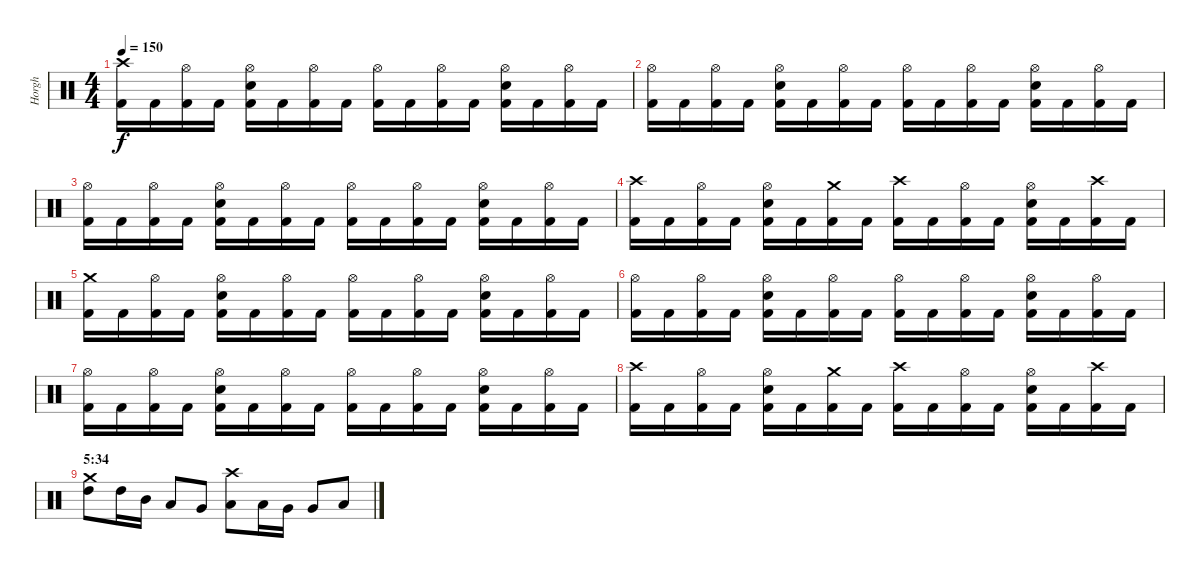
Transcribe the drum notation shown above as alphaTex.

\track ("Horgh" "Horgh") {instrument percussion}
\staff {score}
\articulation defaults
\ts (4 4)
\tempo 150
\clef neutral
\ks c
("Crash high (hit)" "Kick (hit) 2").16{dy f} "Kick (hit) 2".16 ("Hi-Hat (open)" "Kick (hit) 2").16 "Kick (hit) 2".16 ("Hi-Hat (open)" "Electric Snare (hit)" "Kick (hit) 2").16 "Kick (hit) 2".16 ("Hi-Hat (open)" "Kick (hit) 2").16 "Kick (hit) 2".16 ("Hi-Hat (open)" "Kick (hit) 2").16 "Kick (hit) 2".16 ("Hi-Hat (open)" "Kick (hit) 2").16 "Kick (hit) 2".16 ("Hi-Hat (open)" "Electric Snare (hit)" "Kick (hit) 2").16 "Kick (hit) 2".16 ("Hi-Hat (open)" "Kick (hit) 2").16 "Kick (hit) 2".16 |
("Hi-Hat (open)" "Kick (hit) 2").16 "Kick (hit) 2".16 ("Hi-Hat (open)" "Kick (hit) 2").16 "Kick (hit) 2".16 ("Hi-Hat (open)" "Electric Snare (hit)" "Kick (hit) 2").16 "Kick (hit) 2".16 ("Hi-Hat (open)" "Kick (hit) 2").16 "Kick (hit) 2".16 ("Hi-Hat (open)" "Kick (hit) 2").16 "Kick (hit) 2".16 ("Hi-Hat (open)" "Kick (hit) 2").16 "Kick (hit) 2".16 ("Hi-Hat (open)" "Electric Snare (hit)" "Kick (hit) 2").16 "Kick (hit) 2".16 ("Hi-Hat (open)" "Kick (hit) 2").16 "Kick (hit) 2".16 |
("Hi-Hat (open)" "Kick (hit) 2").16 "Kick (hit) 2".16 ("Hi-Hat (open)" "Kick (hit) 2").16 "Kick (hit) 2".16 ("Hi-Hat (open)" "Electric Snare (hit)" "Kick (hit) 2").16 "Kick (hit) 2".16 ("Hi-Hat (open)" "Kick (hit) 2").16 "Kick (hit) 2".16 ("Hi-Hat (open)" "Kick (hit) 2").16 "Kick (hit) 2".16 ("Hi-Hat (open)" "Kick (hit) 2").16 "Kick (hit) 2".16 ("Hi-Hat (open)" "Electric Snare (hit)" "Kick (hit) 2").16 "Kick (hit) 2".16 ("Hi-Hat (open)" "Kick (hit) 2").16 "Kick (hit) 2".16 |
("Crash high (hit)" "Kick (hit) 2").16 "Kick (hit) 2".16 ("Hi-Hat (open)" "Kick (hit) 2").16 "Kick (hit) 2".16 ("Hi-Hat (open)" "Electric Snare (hit)" "Kick (hit) 2").16 "Kick (hit) 2".16 ("Crash medium (hit)" "Kick (hit) 2").16 "Kick (hit) 2".16 ("Crash high (hit)" "Kick (hit) 2").16 "Kick (hit) 2".16 ("Hi-Hat (open)" "Kick (hit) 2").16 "Kick (hit) 2".16 ("Hi-Hat (open)" "Electric Snare (hit)" "Kick (hit) 2").16 "Kick (hit) 2".16 ("Crash high (hit)" "Kick (hit) 2").16 "Kick (hit) 2".16 |
("Crash medium (hit)" "Kick (hit) 2").16 "Kick (hit) 2".16 ("Hi-Hat (open)" "Kick (hit) 2").16 "Kick (hit) 2".16 ("Hi-Hat (open)" "Electric Snare (hit)" "Kick (hit) 2").16 "Kick (hit) 2".16 ("Hi-Hat (open)" "Kick (hit) 2").16 "Kick (hit) 2".16 ("Hi-Hat (open)" "Kick (hit) 2").16 "Kick (hit) 2".16 ("Hi-Hat (open)" "Kick (hit) 2").16 "Kick (hit) 2".16 ("Hi-Hat (open)" "Electric Snare (hit)" "Kick (hit) 2").16 "Kick (hit) 2".16 ("Hi-Hat (open)" "Kick (hit) 2").16 "Kick (hit) 2".16 |
("Hi-Hat (open)" "Kick (hit) 2").16 "Kick (hit) 2".16 ("Hi-Hat (open)" "Kick (hit) 2").16 "Kick (hit) 2".16 ("Hi-Hat (open)" "Electric Snare (hit)" "Kick (hit) 2").16 "Kick (hit) 2".16 ("Hi-Hat (open)" "Kick (hit) 2").16 "Kick (hit) 2".16 ("Hi-Hat (open)" "Kick (hit) 2").16 "Kick (hit) 2".16 ("Hi-Hat (open)" "Kick (hit) 2").16 "Kick (hit) 2".16 ("Hi-Hat (open)" "Electric Snare (hit)" "Kick (hit) 2").16 "Kick (hit) 2".16 ("Hi-Hat (open)" "Kick (hit) 2").16 "Kick (hit) 2".16 |
("Hi-Hat (open)" "Kick (hit) 2").16 "Kick (hit) 2".16 ("Hi-Hat (open)" "Kick (hit) 2").16 "Kick (hit) 2".16 ("Hi-Hat (open)" "Electric Snare (hit)" "Kick (hit) 2").16 "Kick (hit) 2".16 ("Hi-Hat (open)" "Kick (hit) 2").16 "Kick (hit) 2".16 ("Hi-Hat (open)" "Kick (hit) 2").16 "Kick (hit) 2".16 ("Hi-Hat (open)" "Kick (hit) 2").16 "Kick (hit) 2".16 ("Hi-Hat (open)" "Electric Snare (hit)" "Kick (hit) 2").16 "Kick (hit) 2".16 ("Hi-Hat (open)" "Kick (hit) 2").16 "Kick (hit) 2".16 |
("Crash high (hit)" "Kick (hit) 2").16 "Kick (hit) 2".16 ("Hi-Hat (open)" "Kick (hit) 2").16 "Kick (hit) 2".16 ("Hi-Hat (open)" "Electric Snare (hit)" "Kick (hit) 2").16 "Kick (hit) 2".16 ("Crash medium (hit)" "Kick (hit) 2").16 "Kick (hit) 2".16 ("Crash high (hit)" "Kick (hit) 2").16 "Kick (hit) 2".16 ("Hi-Hat (open)" "Kick (hit) 2").16 "Kick (hit) 2".16 ("Hi-Hat (open)" "Electric Snare (hit)" "Kick (hit) 2").16 "Kick (hit) 2".16 ("Crash high (hit)" "Kick (hit) 2").16 "Kick (hit) 2".16 |
\section ("" "5:34")
("Crash medium (hit)" "High Tom (hit)").8 "High Tom (hit)".16 "Mid Tom (hit)".16 "Low Tom (hit)".8 "Very Low Tom (hit)".8 ("Crash high (hit)" "Low Tom (hit)").8 "Low Tom (hit)".16 "Very Low Tom (hit)".16 "Very Low Tom (hit)".8 "Low Floor Tom (hit)".8
